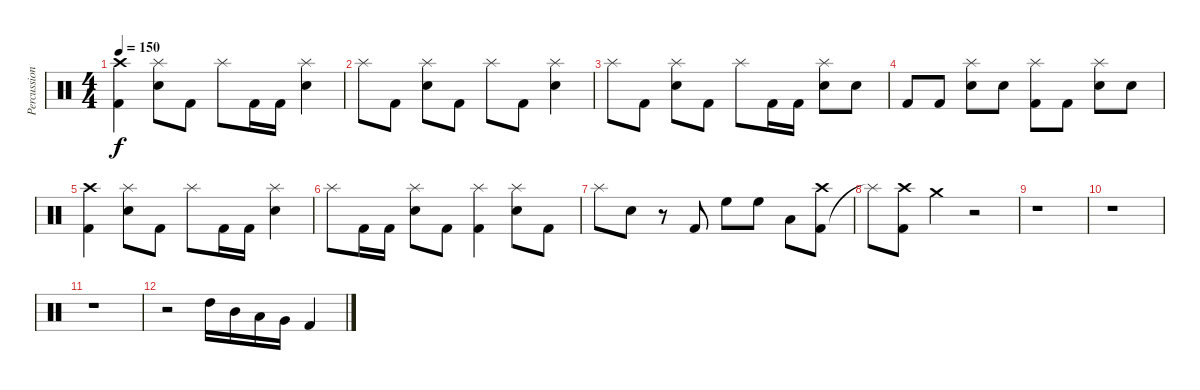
\track ("Percussion" "Percussion") {instrument percussion}
\staff {score}
\articulation defaults
\ts (4 4)
\tempo 150
\clef neutral
\ks c
("Kick (hit) 2" "Crash high (hit)").4{dy f} ("Electric Snare (hit)" "Splash (hit)").8 "Kick (hit) 2".8 "Splash (hit)".8 "Kick (hit) 2".16 "Kick (hit) 2".16 ("Electric Snare (hit)" "Splash (hit)").4 |
"Splash (hit)".8 "Kick (hit) 2".8 ("Electric Snare (hit)" "Splash (hit)").8 "Kick (hit) 2".8 "Splash (hit)".8 "Kick (hit) 2".8 ("Electric Snare (hit)" "Splash (hit)").4 |
"Splash (hit)".8 "Kick (hit) 2".8 ("Electric Snare (hit)" "Splash (hit)").8 "Kick (hit) 2".8 "Splash (hit)".8 "Kick (hit) 2".16 "Kick (hit) 2".16 ("Electric Snare (hit)" "Splash (hit)").8 "Electric Snare (hit)".8 |
"Kick (hit) 2".8 "Kick (hit) 2".8 ("Electric Snare (hit)" "Splash (hit)").8 "Electric Snare (hit)".8 ("Kick (hit) 2" "Splash (hit)").8 "Kick (hit) 2".8 ("Electric Snare (hit)" "Splash (hit)").8 "Electric Snare (hit)".8 |
("Kick (hit) 2" "Crash high (hit)").4 ("Electric Snare (hit)" "Splash (hit)").8 "Kick (hit) 2".8 "Splash (hit)".8 "Kick (hit) 2".16 "Kick (hit) 2".16 ("Electric Snare (hit)" "Splash (hit)").4 |
"Splash (hit)".8 "Kick (hit) 2".16 "Kick (hit) 2".16 ("Electric Snare (hit)" "Splash (hit)").8 "Kick (hit) 2".8 ("Kick (hit) 2" "Splash (hit)").4 ("Electric Snare (hit)" "Splash (hit)").8 "Kick (hit) 2".8 |
"Splash (hit)".8 "Electric Snare (hit)".8 r.8 "Kick (hit) 2".8 "High Floor Tom (hit)".8 "High Floor Tom (hit)".8 "Low Tom (hit)".8 ("Kick (hit) 2" "Crash high (hit)").8 |
"Splash (hit)"{t}.8 ("Kick (hit) 2" "Crash high (hit)").8 "Crash medium (hit)".4 r.2 |
r.1 |
r.1 |
r.1 |
r.2 "High Tom (hit)".16 "Mid Tom (hit)".16 "Low Tom (hit)".16 "Very Low Tom (hit)".16 "Kick (hit) 2".4
